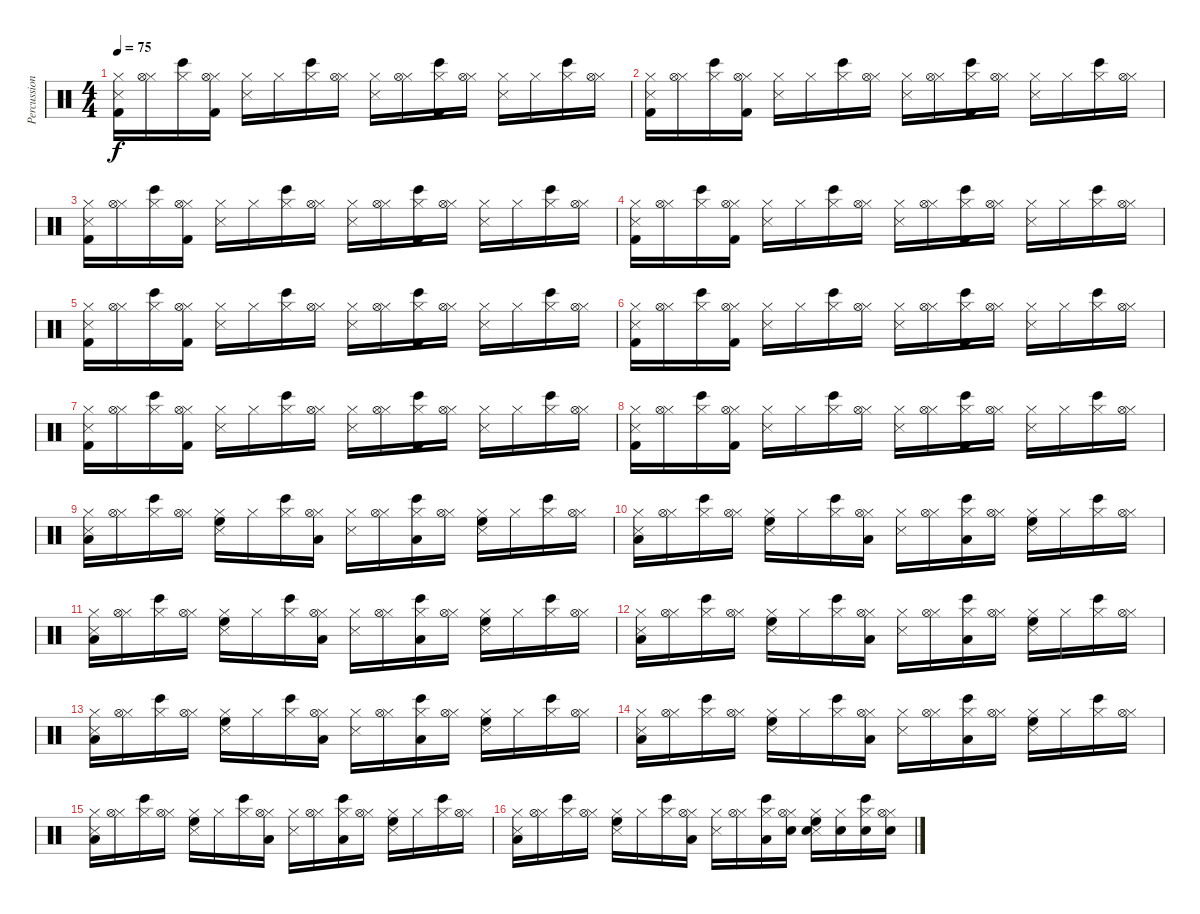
\track ("Percussion" "Percussion") {instrument percussion}
\staff {score}
\articulation defaults
\ts (4 4)
\tempo 75
\clef neutral
\ks c
("Hi-Hat (closed)" "Metronome (hit)" "Kick (hit) 2").16{dy f} ("Hi-Hat (closed)" "Hi-Hat (open)").16 ("Hi-Hat (closed)" "Bongo High (hit)").16 ("Hi-Hat (closed)" "Hi-Hat (open)" "Kick (hit) 2").16 ("Hi-Hat (closed)" "Metronome (hit)").16 "Hi-Hat (closed)".16 ("Hi-Hat (closed)" "Bongo High (hit)").16 ("Hi-Hat (closed)" "Hi-Hat (open)").16 ("Hi-Hat (closed)" "Metronome (hit)").16 ("Hi-Hat (closed)" "Hi-Hat (open)").16 ("Hi-Hat (closed)" "Bongo High (hit)" "Kick (hit) 2").16 ("Hi-Hat (closed)" "Hi-Hat (open)").16 ("Hi-Hat (closed)" "Metronome (hit)").16 "Hi-Hat (closed)".16 ("Hi-Hat (closed)" "Bongo High (hit)").16 ("Hi-Hat (closed)" "Hi-Hat (open)").16 |
("Hi-Hat (closed)" "Metronome (hit)" "Kick (hit) 2").16 ("Hi-Hat (closed)" "Hi-Hat (open)").16 ("Hi-Hat (closed)" "Bongo High (hit)").16 ("Hi-Hat (closed)" "Hi-Hat (open)" "Kick (hit) 2").16 ("Hi-Hat (closed)" "Metronome (hit)").16 "Hi-Hat (closed)".16 ("Hi-Hat (closed)" "Bongo High (hit)").16 ("Hi-Hat (closed)" "Hi-Hat (open)").16 ("Hi-Hat (closed)" "Metronome (hit)").16 ("Hi-Hat (closed)" "Hi-Hat (open)").16 ("Hi-Hat (closed)" "Bongo High (hit)" "Kick (hit) 2").16 ("Hi-Hat (closed)" "Hi-Hat (open)").16 ("Hi-Hat (closed)" "Metronome (hit)").16 "Hi-Hat (closed)".16 ("Hi-Hat (closed)" "Bongo High (hit)").16 ("Hi-Hat (closed)" "Hi-Hat (open)").16 |
("Hi-Hat (closed)" "Metronome (hit)" "Kick (hit) 2").16 ("Hi-Hat (closed)" "Hi-Hat (open)").16 ("Hi-Hat (closed)" "Bongo High (hit)").16 ("Hi-Hat (closed)" "Hi-Hat (open)" "Kick (hit) 2").16 ("Hi-Hat (closed)" "Metronome (hit)").16 "Hi-Hat (closed)".16 ("Hi-Hat (closed)" "Bongo High (hit)").16 ("Hi-Hat (closed)" "Hi-Hat (open)").16 ("Hi-Hat (closed)" "Metronome (hit)").16 ("Hi-Hat (closed)" "Hi-Hat (open)").16 ("Hi-Hat (closed)" "Bongo High (hit)" "Kick (hit) 2").16 ("Hi-Hat (closed)" "Hi-Hat (open)").16 ("Hi-Hat (closed)" "Metronome (hit)").16 "Hi-Hat (closed)".16 ("Hi-Hat (closed)" "Bongo High (hit)").16 ("Hi-Hat (closed)" "Hi-Hat (open)").16 |
("Hi-Hat (closed)" "Metronome (hit)" "Kick (hit) 2").16 ("Hi-Hat (closed)" "Hi-Hat (open)").16 ("Hi-Hat (closed)" "Bongo High (hit)").16 ("Hi-Hat (closed)" "Hi-Hat (open)" "Kick (hit) 2").16 ("Hi-Hat (closed)" "Metronome (hit)").16 "Hi-Hat (closed)".16 ("Hi-Hat (closed)" "Bongo High (hit)").16 ("Hi-Hat (closed)" "Hi-Hat (open)").16 ("Hi-Hat (closed)" "Metronome (hit)").16 ("Hi-Hat (closed)" "Hi-Hat (open)").16 ("Hi-Hat (closed)" "Bongo High (hit)" "Kick (hit) 2").16 ("Hi-Hat (closed)" "Hi-Hat (open)").16 ("Hi-Hat (closed)" "Metronome (hit)").16 "Hi-Hat (closed)".16 ("Hi-Hat (closed)" "Bongo High (hit)").16 ("Hi-Hat (closed)" "Hi-Hat (open)").16 |
("Hi-Hat (closed)" "Metronome (hit)" "Kick (hit) 2").16 ("Hi-Hat (closed)" "Hi-Hat (open)").16 ("Hi-Hat (closed)" "Bongo High (hit)").16 ("Hi-Hat (closed)" "Hi-Hat (open)" "Kick (hit) 2").16 ("Hi-Hat (closed)" "Metronome (hit)").16 "Hi-Hat (closed)".16 ("Hi-Hat (closed)" "Bongo High (hit)").16 ("Hi-Hat (closed)" "Hi-Hat (open)").16 ("Hi-Hat (closed)" "Metronome (hit)").16 ("Hi-Hat (closed)" "Hi-Hat (open)").16 ("Hi-Hat (closed)" "Bongo High (hit)" "Kick (hit) 2").16 ("Hi-Hat (closed)" "Hi-Hat (open)").16 ("Hi-Hat (closed)" "Metronome (hit)").16 "Hi-Hat (closed)".16 ("Hi-Hat (closed)" "Bongo High (hit)").16 ("Hi-Hat (closed)" "Hi-Hat (open)").16 |
("Hi-Hat (closed)" "Metronome (hit)" "Kick (hit) 2").16 ("Hi-Hat (closed)" "Hi-Hat (open)").16 ("Hi-Hat (closed)" "Bongo High (hit)").16 ("Hi-Hat (closed)" "Hi-Hat (open)" "Kick (hit) 2").16 ("Hi-Hat (closed)" "Metronome (hit)").16 "Hi-Hat (closed)".16 ("Hi-Hat (closed)" "Bongo High (hit)").16 ("Hi-Hat (closed)" "Hi-Hat (open)").16 ("Hi-Hat (closed)" "Metronome (hit)").16 ("Hi-Hat (closed)" "Hi-Hat (open)").16 ("Hi-Hat (closed)" "Bongo High (hit)" "Kick (hit) 2").16 ("Hi-Hat (closed)" "Hi-Hat (open)").16 ("Hi-Hat (closed)" "Metronome (hit)").16 "Hi-Hat (closed)".16 ("Hi-Hat (closed)" "Bongo High (hit)").16 ("Hi-Hat (closed)" "Hi-Hat (open)").16 |
("Hi-Hat (closed)" "Metronome (hit)" "Kick (hit) 2").16 ("Hi-Hat (closed)" "Hi-Hat (open)").16 ("Hi-Hat (closed)" "Bongo High (hit)").16 ("Hi-Hat (closed)" "Hi-Hat (open)" "Kick (hit) 2").16 ("Hi-Hat (closed)" "Metronome (hit)").16 "Hi-Hat (closed)".16 ("Hi-Hat (closed)" "Bongo High (hit)").16 ("Hi-Hat (closed)" "Hi-Hat (open)").16 ("Hi-Hat (closed)" "Metronome (hit)").16 ("Hi-Hat (closed)" "Hi-Hat (open)").16 ("Hi-Hat (closed)" "Bongo High (hit)" "Kick (hit) 2").16 ("Hi-Hat (closed)" "Hi-Hat (open)").16 ("Hi-Hat (closed)" "Metronome (hit)").16 "Hi-Hat (closed)".16 ("Hi-Hat (closed)" "Bongo High (hit)").16 ("Hi-Hat (closed)" "Hi-Hat (open)").16 |
("Hi-Hat (closed)" "Metronome (hit)" "Kick (hit) 2").16 ("Hi-Hat (closed)" "Hi-Hat (open)").16 ("Hi-Hat (closed)" "Bongo High (hit)").16 ("Hi-Hat (closed)" "Hi-Hat (open)" "Kick (hit) 2").16 ("Hi-Hat (closed)" "Metronome (hit)").16 "Hi-Hat (closed)".16 ("Hi-Hat (closed)" "Bongo High (hit)").16 ("Hi-Hat (closed)" "Hi-Hat (open)").16 ("Hi-Hat (closed)" "Metronome (hit)").16 ("Hi-Hat (closed)" "Hi-Hat (open)").16 ("Hi-Hat (closed)" "Bongo High (hit)" "Kick (hit) 2").16 ("Hi-Hat (closed)" "Hi-Hat (open)").16 ("Hi-Hat (closed)" "Metronome (hit)").16 "Hi-Hat (closed)".16 ("Hi-Hat (closed)" "Bongo High (hit)").16 ("Hi-Hat (closed)" "Hi-Hat (open)").16 |
("Hi-Hat (closed)" "Metronome (hit)" "Low Floor Tom (hit)").16 ("Hi-Hat (closed)" "Hi-Hat (open)").16 ("Hi-Hat (closed)" "Bongo High (hit)").16 ("Hi-Hat (closed)" "Hi-Hat (open)").16 ("Hi-Hat (closed)" "Metronome (hit)" "High Floor Tom (hit)").16 "Hi-Hat (closed)".16 ("Hi-Hat (closed)" "Bongo High (hit)").16 ("Hi-Hat (closed)" "Hi-Hat (open)" "Low Floor Tom (hit)").16 ("Hi-Hat (closed)" "Metronome (hit)").16 ("Hi-Hat (closed)" "Hi-Hat (open)").16 ("Hi-Hat (closed)" "Bongo High (hit)" "Low Floor Tom (hit)").16 ("Hi-Hat (closed)" "Hi-Hat (open)").16 ("Hi-Hat (closed)" "Metronome (hit)" "High Floor Tom (hit)").16 "Hi-Hat (closed)".16 ("Hi-Hat (closed)" "Bongo High (hit)").16 ("Hi-Hat (closed)" "Hi-Hat (open)").16 |
("Hi-Hat (closed)" "Metronome (hit)" "Low Floor Tom (hit)").16 ("Hi-Hat (closed)" "Hi-Hat (open)").16 ("Hi-Hat (closed)" "Bongo High (hit)").16 ("Hi-Hat (closed)" "Hi-Hat (open)").16 ("Hi-Hat (closed)" "Metronome (hit)" "High Floor Tom (hit)").16 "Hi-Hat (closed)".16 ("Hi-Hat (closed)" "Bongo High (hit)").16 ("Hi-Hat (closed)" "Hi-Hat (open)" "Low Floor Tom (hit)").16 ("Hi-Hat (closed)" "Metronome (hit)").16 ("Hi-Hat (closed)" "Hi-Hat (open)").16 ("Hi-Hat (closed)" "Bongo High (hit)" "Low Floor Tom (hit)").16 ("Hi-Hat (closed)" "Hi-Hat (open)").16 ("Hi-Hat (closed)" "Metronome (hit)" "High Floor Tom (hit)").16 "Hi-Hat (closed)".16 ("Hi-Hat (closed)" "Bongo High (hit)").16 ("Hi-Hat (closed)" "Hi-Hat (open)").16 |
("Hi-Hat (closed)" "Metronome (hit)" "Low Floor Tom (hit)").16 ("Hi-Hat (closed)" "Hi-Hat (open)").16 ("Hi-Hat (closed)" "Bongo High (hit)").16 ("Hi-Hat (closed)" "Hi-Hat (open)").16 ("Hi-Hat (closed)" "Metronome (hit)" "High Floor Tom (hit)").16 "Hi-Hat (closed)".16 ("Hi-Hat (closed)" "Bongo High (hit)").16 ("Hi-Hat (closed)" "Hi-Hat (open)" "Low Floor Tom (hit)").16 ("Hi-Hat (closed)" "Metronome (hit)").16 ("Hi-Hat (closed)" "Hi-Hat (open)").16 ("Hi-Hat (closed)" "Bongo High (hit)" "Low Floor Tom (hit)").16 ("Hi-Hat (closed)" "Hi-Hat (open)").16 ("Hi-Hat (closed)" "Metronome (hit)" "High Floor Tom (hit)").16 "Hi-Hat (closed)".16 ("Hi-Hat (closed)" "Bongo High (hit)").16 ("Hi-Hat (closed)" "Hi-Hat (open)").16 |
("Hi-Hat (closed)" "Metronome (hit)" "Low Floor Tom (hit)").16 ("Hi-Hat (closed)" "Hi-Hat (open)").16 ("Hi-Hat (closed)" "Bongo High (hit)").16 ("Hi-Hat (closed)" "Hi-Hat (open)").16 ("Hi-Hat (closed)" "Metronome (hit)" "High Floor Tom (hit)").16 "Hi-Hat (closed)".16 ("Hi-Hat (closed)" "Bongo High (hit)").16 ("Hi-Hat (closed)" "Hi-Hat (open)" "Low Floor Tom (hit)").16 ("Hi-Hat (closed)" "Metronome (hit)").16 ("Hi-Hat (closed)" "Hi-Hat (open)").16 ("Hi-Hat (closed)" "Bongo High (hit)" "Low Floor Tom (hit)").16 ("Hi-Hat (closed)" "Hi-Hat (open)").16 ("Hi-Hat (closed)" "Metronome (hit)" "High Floor Tom (hit)").16 "Hi-Hat (closed)".16 ("Hi-Hat (closed)" "Bongo High (hit)").16 ("Hi-Hat (closed)" "Hi-Hat (open)").16 |
("Hi-Hat (closed)" "Metronome (hit)" "Low Floor Tom (hit)").16 ("Hi-Hat (closed)" "Hi-Hat (open)").16 ("Hi-Hat (closed)" "Bongo High (hit)").16 ("Hi-Hat (closed)" "Hi-Hat (open)").16 ("Hi-Hat (closed)" "Metronome (hit)" "High Floor Tom (hit)").16 "Hi-Hat (closed)".16 ("Hi-Hat (closed)" "Bongo High (hit)").16 ("Hi-Hat (closed)" "Hi-Hat (open)" "Low Floor Tom (hit)").16 ("Hi-Hat (closed)" "Metronome (hit)").16 ("Hi-Hat (closed)" "Hi-Hat (open)").16 ("Hi-Hat (closed)" "Bongo High (hit)" "Low Floor Tom (hit)").16 ("Hi-Hat (closed)" "Hi-Hat (open)").16 ("Hi-Hat (closed)" "Metronome (hit)" "High Floor Tom (hit)").16 "Hi-Hat (closed)".16 ("Hi-Hat (closed)" "Bongo High (hit)").16 ("Hi-Hat (closed)" "Hi-Hat (open)").16 |
("Hi-Hat (closed)" "Metronome (hit)" "Low Floor Tom (hit)").16 ("Hi-Hat (closed)" "Hi-Hat (open)").16 ("Hi-Hat (closed)" "Bongo High (hit)").16 ("Hi-Hat (closed)" "Hi-Hat (open)").16 ("Hi-Hat (closed)" "Metronome (hit)" "High Floor Tom (hit)").16 "Hi-Hat (closed)".16 ("Hi-Hat (closed)" "Bongo High (hit)").16 ("Hi-Hat (closed)" "Hi-Hat (open)" "Low Floor Tom (hit)").16 ("Hi-Hat (closed)" "Metronome (hit)").16 ("Hi-Hat (closed)" "Hi-Hat (open)").16 ("Hi-Hat (closed)" "Bongo High (hit)" "Low Floor Tom (hit)").16 ("Hi-Hat (closed)" "Hi-Hat (open)").16 ("Hi-Hat (closed)" "Metronome (hit)" "High Floor Tom (hit)").16 "Hi-Hat (closed)".16 ("Hi-Hat (closed)" "Bongo High (hit)").16 ("Hi-Hat (closed)" "Hi-Hat (open)").16 |
("Hi-Hat (closed)" "Metronome (hit)" "Low Floor Tom (hit)").16 ("Hi-Hat (closed)" "Hi-Hat (open)").16 ("Hi-Hat (closed)" "Bongo High (hit)").16 ("Hi-Hat (closed)" "Hi-Hat (open)").16 ("Hi-Hat (closed)" "Metronome (hit)" "High Floor Tom (hit)").16 "Hi-Hat (closed)".16 ("Hi-Hat (closed)" "Bongo High (hit)").16 ("Hi-Hat (closed)" "Hi-Hat (open)" "Low Floor Tom (hit)").16 ("Hi-Hat (closed)" "Metronome (hit)").16 ("Hi-Hat (closed)" "Hi-Hat (open)").16 ("Hi-Hat (closed)" "Bongo High (hit)" "Low Floor Tom (hit)").16 ("Hi-Hat (closed)" "Hi-Hat (open)").16 ("Hi-Hat (closed)" "Metronome (hit)" "High Floor Tom (hit)").16 "Hi-Hat (closed)".16 ("Hi-Hat (closed)" "Bongo High (hit)").16 ("Hi-Hat (closed)" "Hi-Hat (open)").16 |
("Hi-Hat (closed)" "Metronome (hit)" "Low Floor Tom (hit)").16 ("Hi-Hat (closed)" "Hi-Hat (open)").16 ("Hi-Hat (closed)" "Bongo High (hit)").16 ("Hi-Hat (closed)" "Hi-Hat (open)").16 ("Hi-Hat (closed)" "Metronome (hit)" "High Floor Tom (hit)").16 "Hi-Hat (closed)".16 ("Hi-Hat (closed)" "Bongo High (hit)").16 ("Hi-Hat (closed)" "Hi-Hat (open)" "Low Floor Tom (hit)").16 ("Hi-Hat (closed)" "Metronome (hit)").16 ("Hi-Hat (closed)" "Hi-Hat (open)").16 ("Hi-Hat (closed)" "Bongo High (hit)" "Low Floor Tom (hit)").16 ("Hi-Hat (closed)" "Hi-Hat (open)" "Snare (hit) 2").16 ("Hi-Hat (closed)" "Metronome (hit)" "Snare (hit) 2" "High Floor Tom (hit)").16 ("Hi-Hat (closed)" "Snare (hit) 2").16 ("Hi-Hat (closed)" "Bongo High (hit)" "Snare (hit) 2").16 ("Hi-Hat (closed)" "Hi-Hat (open)" "Snare (hit) 2").16
